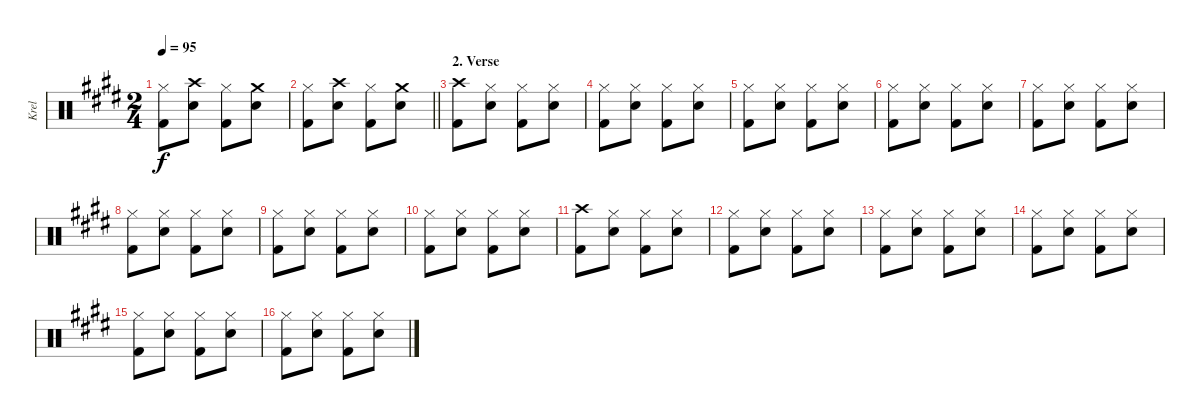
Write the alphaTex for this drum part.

\track ("Krel" "Krel") {instrument percussion}
\staff {score}
\articulation defaults
\ts (2 4)
\tempo 95
\clef neutral
\ks e
("Hi-Hat (closed)" "Kick (hit) 2").8{dy f} ("Crash high (hit)" "Snare (hit) 2").8 ("Hi-Hat (closed)" "Kick (hit) 2").8 ("Crash medium (hit)" "Snare (hit) 2").8 |
\barLineRight lightlight
("Hi-Hat (closed)" "Kick (hit) 2").8 ("Crash high (hit)" "Snare (hit) 2").8 ("Hi-Hat (closed)" "Kick (hit) 2").8 ("Crash medium (hit)" "Snare (hit) 2").8 |
\section ("" "2. Verse")
("Crash high (hit)" "Kick (hit) 2").8 ("Hi-Hat (closed)" "Snare (hit) 2").8 ("Hi-Hat (closed)" "Kick (hit) 2").8 ("Hi-Hat (closed)" "Snare (hit) 2").8 |
("Hi-Hat (closed)" "Kick (hit) 2").8 ("Hi-Hat (closed)" "Snare (hit) 2").8 ("Hi-Hat (closed)" "Kick (hit) 2").8 ("Hi-Hat (closed)" "Snare (hit) 2").8 |
("Hi-Hat (closed)" "Kick (hit) 2").8 ("Hi-Hat (closed)" "Snare (hit) 2").8 ("Hi-Hat (closed)" "Kick (hit) 2").8 ("Hi-Hat (closed)" "Snare (hit) 2").8 |
("Hi-Hat (closed)" "Kick (hit) 2").8 ("Hi-Hat (closed)" "Snare (hit) 2").8 ("Hi-Hat (closed)" "Kick (hit) 2").8 ("Hi-Hat (closed)" "Snare (hit) 2").8 |
("Hi-Hat (closed)" "Kick (hit) 2").8 ("Hi-Hat (closed)" "Snare (hit) 2").8 ("Hi-Hat (closed)" "Kick (hit) 2").8 ("Hi-Hat (closed)" "Snare (hit) 2").8 |
("Hi-Hat (closed)" "Kick (hit) 2").8 ("Hi-Hat (closed)" "Snare (hit) 2").8 ("Hi-Hat (closed)" "Kick (hit) 2").8 ("Hi-Hat (closed)" "Snare (hit) 2").8 |
("Hi-Hat (closed)" "Kick (hit) 2").8 ("Hi-Hat (closed)" "Snare (hit) 2").8 ("Hi-Hat (closed)" "Kick (hit) 2").8 ("Hi-Hat (closed)" "Snare (hit) 2").8 |
("Hi-Hat (closed)" "Kick (hit) 2").8 ("Hi-Hat (closed)" "Snare (hit) 2").8 ("Hi-Hat (closed)" "Kick (hit) 2").8 ("Hi-Hat (closed)" "Snare (hit) 2").8 |
("Crash high (hit)" "Kick (hit) 2").8 ("Hi-Hat (closed)" "Snare (hit) 2").8 ("Hi-Hat (closed)" "Kick (hit) 2").8 ("Hi-Hat (closed)" "Snare (hit) 2").8 |
("Hi-Hat (closed)" "Kick (hit) 2").8 ("Hi-Hat (closed)" "Snare (hit) 2").8 ("Hi-Hat (closed)" "Kick (hit) 2").8 ("Hi-Hat (closed)" "Snare (hit) 2").8 |
("Hi-Hat (closed)" "Kick (hit) 2").8 ("Hi-Hat (closed)" "Snare (hit) 2").8 ("Hi-Hat (closed)" "Kick (hit) 2").8 ("Hi-Hat (closed)" "Snare (hit) 2").8 |
("Hi-Hat (closed)" "Kick (hit) 2").8 ("Hi-Hat (closed)" "Snare (hit) 2").8 ("Hi-Hat (closed)" "Kick (hit) 2").8 ("Hi-Hat (closed)" "Snare (hit) 2").8 |
("Hi-Hat (closed)" "Kick (hit) 2").8 ("Hi-Hat (closed)" "Snare (hit) 2").8 ("Hi-Hat (closed)" "Kick (hit) 2").8 ("Hi-Hat (closed)" "Snare (hit) 2").8 |
("Hi-Hat (closed)" "Kick (hit) 2").8 ("Hi-Hat (closed)" "Snare (hit) 2").8 ("Hi-Hat (closed)" "Kick (hit) 2").8 ("Hi-Hat (closed)" "Snare (hit) 2").8
